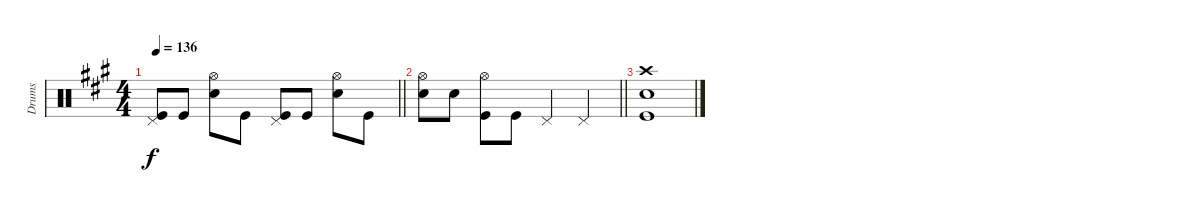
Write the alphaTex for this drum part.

\track ("Drums" "Drums") {instrument percussion}
\staff {score}
\articulation defaults
\ts (4 4)
\tempo 136
\clef neutral
\barLineRight lightlight
\ks a
("Pedal Hi-Hat (hit)" "Kick (hit)").8{dy f} "Kick (hit)".8 ("Hi-Hat (open)" "Snare (hit) 2").8 "Kick (hit)".8 ("Pedal Hi-Hat (hit)" "Kick (hit)").8 "Kick (hit)".8 ("Hi-Hat (open)" "Snare (hit) 2").8 "Kick (hit)".8 |
\barLineRight lightlight
("Hi-Hat (open)" "Snare (hit) 2").8 "Snare (hit) 2".8 ("Hi-Hat (open)" "Kick (hit)").8 "Kick (hit)".8 "Pedal Hi-Hat (hit)".4 "Pedal Hi-Hat (hit)".4 |
("Crash high (hit)" "Snare (hit) 2" "Kick (hit)").1
